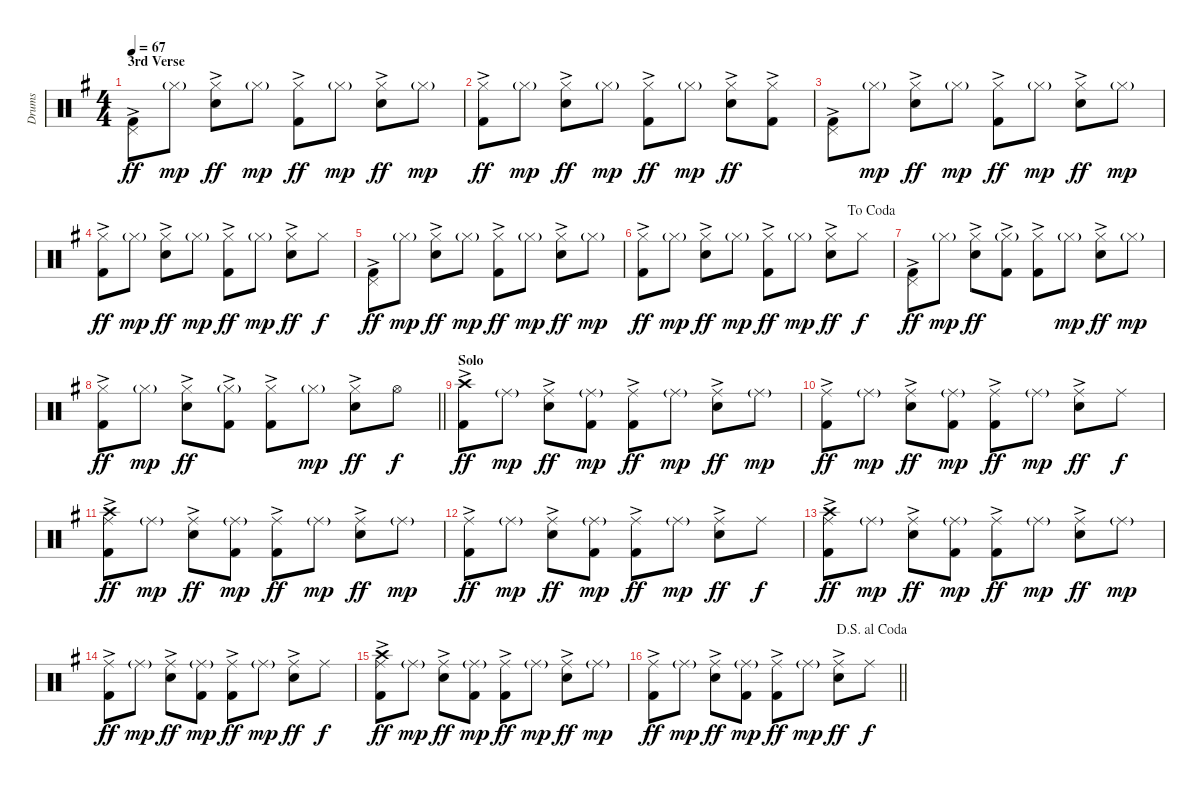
\track ("Drums" "Drums") {instrument percussion}
\staff {score}
\articulation defaults
\ts (4 4)
\section ("" "3rd Verse")
\tempo 67
\clef neutral
\ks g
("Pedal Hi-Hat (hit)" "Kick (hit) 2"{ac}).8{dy ff} "Hi-Hat (closed)"{g}.8{dy mp} ("Hi-Hat (closed)" "Snare (hit) 2"{ac}).8{dy ff} "Hi-Hat (closed)"{g}.8{dy mp} ("Hi-Hat (closed)" "Kick (hit) 2"{ac}).8{dy ff} "Hi-Hat (closed)"{g}.8{dy mp} ("Hi-Hat (closed)" "Snare (hit) 2"{ac}).8{dy ff} "Hi-Hat (closed)"{g}.8{dy mp} |
("Hi-Hat (closed)" "Kick (hit) 2"{ac}).8{dy ff} "Hi-Hat (closed)"{g}.8{dy mp} ("Hi-Hat (closed)" "Snare (hit) 2"{ac}).8{dy ff} "Hi-Hat (closed)"{g}.8{dy mp} ("Hi-Hat (closed)" "Kick (hit) 2"{ac}).8{dy ff} "Hi-Hat (closed)"{g}.8{dy mp} ("Hi-Hat (closed)" "Snare (hit) 2"{ac}).8{dy ff} ("Hi-Hat (closed)" "Kick (hit) 2"{ac}).8 |
("Pedal Hi-Hat (hit)" "Kick (hit) 2"{ac}).8 "Hi-Hat (closed)"{g}.8{dy mp} ("Hi-Hat (closed)" "Snare (hit) 2"{ac}).8{dy ff} "Hi-Hat (closed)"{g}.8{dy mp} ("Hi-Hat (closed)" "Kick (hit) 2"{ac}).8{dy ff} "Hi-Hat (closed)"{g}.8{dy mp} ("Hi-Hat (closed)" "Snare (hit) 2"{ac}).8{dy ff} "Hi-Hat (closed)"{g}.8{dy mp} |
("Hi-Hat (closed)" "Kick (hit) 2"{ac}).8{dy ff} "Hi-Hat (closed)"{g}.8{dy mp} ("Hi-Hat (closed)" "Snare (hit) 2"{ac}).8{dy ff} "Hi-Hat (closed)"{g}.8{dy mp} ("Hi-Hat (closed)" "Kick (hit) 2"{ac}).8{dy ff} "Hi-Hat (closed)"{g}.8{dy mp} ("Hi-Hat (closed)" "Snare (hit) 2"{ac}).8{dy ff} "Hi-Hat (closed)".8{dy f} |
("Pedal Hi-Hat (hit)" "Kick (hit) 2"{ac}).8{dy ff} "Hi-Hat (closed)"{g}.8{dy mp} ("Hi-Hat (closed)" "Snare (hit) 2"{ac}).8{dy ff} "Hi-Hat (closed)"{g}.8{dy mp} ("Hi-Hat (closed)" "Kick (hit) 2"{ac}).8{dy ff} "Hi-Hat (closed)"{g}.8{dy mp} ("Hi-Hat (closed)" "Snare (hit) 2"{ac}).8{dy ff} "Hi-Hat (closed)"{g}.8{dy mp} |
\jump dacoda
("Hi-Hat (closed)" "Kick (hit) 2"{ac}).8{dy ff} "Hi-Hat (closed)"{g}.8{dy mp} ("Hi-Hat (closed)" "Snare (hit) 2"{ac}).8{dy ff} "Hi-Hat (closed)"{g}.8{dy mp} ("Hi-Hat (closed)" "Kick (hit) 2"{ac}).8{dy ff} "Hi-Hat (closed)"{g}.8{dy mp} ("Hi-Hat (closed)" "Snare (hit) 2"{ac}).8{dy ff} "Hi-Hat (closed)".8{dy f} |
("Pedal Hi-Hat (hit)" "Kick (hit) 2"{ac}).8{dy ff} "Hi-Hat (closed)"{g}.8{dy mp} ("Hi-Hat (closed)" "Snare (hit) 2"{ac}).8{dy ff} ("Hi-Hat (closed)"{g} "Kick (hit) 2"{ac}).8 ("Hi-Hat (closed)" "Kick (hit) 2"{ac}).8 "Hi-Hat (closed)"{g}.8{dy mp} ("Hi-Hat (closed)" "Snare (hit) 2"{ac}).8{dy ff} "Hi-Hat (closed)"{g}.8{dy mp} |
\barLineRight lightlight
("Hi-Hat (closed)" "Kick (hit) 2"{ac}).8{dy ff} "Hi-Hat (closed)"{g}.8{dy mp} ("Hi-Hat (closed)" "Snare (hit) 2"{ac}).8{dy ff} ("Hi-Hat (closed)"{g} "Kick (hit) 2"{ac}).8 ("Hi-Hat (closed)" "Kick (hit) 2"{ac}).8 "Hi-Hat (closed)"{g}.8{dy mp} ("Hi-Hat (closed)" "Snare (hit) 2"{ac}).8{dy ff} "Hi-Hat (open)".8{dy f} |
\section ("" "Solo")
("Crash high (hit)" "Kick (hit) 2"{ac}).8{dy ff} "Ride (middle)"{g}.8{dy mp} ("Ride (middle)" "Snare (hit) 2"{ac}).8{dy ff} ("Ride (middle)"{g} "Kick (hit) 2").8{dy mp} ("Ride (middle)" "Kick (hit) 2"{ac}).8{dy ff} "Ride (middle)"{g}.8{dy mp} ("Ride (middle)" "Snare (hit) 2"{ac}).8{dy ff} "Ride (middle)"{g}.8{dy mp} |
("Ride (middle)" "Kick (hit) 2"{ac}).8{dy ff} "Ride (middle)"{g}.8{dy mp} ("Ride (middle)" "Snare (hit) 2"{ac}).8{dy ff} ("Ride (middle)"{g} "Kick (hit) 2").8{dy mp} ("Ride (middle)" "Kick (hit) 2"{ac}).8{dy ff} "Ride (middle)"{g}.8{dy mp} ("Ride (middle)" "Snare (hit) 2"{ac}).8{dy ff} "Ride (middle)".8{dy f} |
("Ride (middle)" "Crash high (hit)" "Kick (hit) 2"{ac}).8{dy ff} "Ride (middle)"{g}.8{dy mp} ("Ride (middle)" "Snare (hit) 2"{ac}).8{dy ff} ("Ride (middle)"{g} "Kick (hit) 2").8{dy mp} ("Ride (middle)" "Kick (hit) 2"{ac}).8{dy ff} "Ride (middle)"{g}.8{dy mp} ("Ride (middle)" "Snare (hit) 2"{ac}).8{dy ff} "Ride (middle)"{g}.8{dy mp} |
("Ride (middle)" "Kick (hit) 2"{ac}).8{dy ff} "Ride (middle)"{g}.8{dy mp} ("Ride (middle)" "Snare (hit) 2"{ac}).8{dy ff} ("Ride (middle)"{g} "Kick (hit) 2").8{dy mp} ("Ride (middle)" "Kick (hit) 2"{ac}).8{dy ff} "Ride (middle)"{g}.8{dy mp} ("Ride (middle)" "Snare (hit) 2"{ac}).8{dy ff} "Ride (middle)".8{dy f} |
("Ride (middle)" "Crash high (hit)" "Kick (hit) 2"{ac}).8{dy ff} "Ride (middle)"{g}.8{dy mp} ("Ride (middle)" "Snare (hit) 2"{ac}).8{dy ff} ("Ride (middle)"{g} "Kick (hit) 2").8{dy mp} ("Ride (middle)" "Kick (hit) 2"{ac}).8{dy ff} "Ride (middle)"{g}.8{dy mp} ("Ride (middle)" "Snare (hit) 2"{ac}).8{dy ff} "Ride (middle)"{g}.8{dy mp} |
("Ride (middle)" "Kick (hit) 2"{ac}).8{dy ff} "Ride (middle)"{g}.8{dy mp} ("Ride (middle)" "Snare (hit) 2"{ac}).8{dy ff} ("Ride (middle)"{g} "Kick (hit) 2").8{dy mp} ("Ride (middle)" "Kick (hit) 2"{ac}).8{dy ff} "Ride (middle)"{g}.8{dy mp} ("Ride (middle)" "Snare (hit) 2"{ac}).8{dy ff} "Ride (middle)".8{dy f} |
("Ride (middle)" "Crash high (hit)" "Kick (hit) 2"{ac}).8{dy ff} "Ride (middle)"{g}.8{dy mp} ("Ride (middle)" "Snare (hit) 2"{ac}).8{dy ff} ("Ride (middle)"{g} "Kick (hit) 2").8{dy mp} ("Ride (middle)" "Kick (hit) 2"{ac}).8{dy ff} "Ride (middle)"{g}.8{dy mp} ("Ride (middle)" "Snare (hit) 2"{ac}).8{dy ff} "Ride (middle)"{g}.8{dy mp} |
\jump dalsegnoalcoda
\barLineRight lightlight
("Ride (middle)" "Kick (hit) 2"{ac}).8{dy ff} "Ride (middle)"{g}.8{dy mp} ("Ride (middle)" "Snare (hit) 2"{ac}).8{dy ff} ("Ride (middle)"{g} "Kick (hit) 2").8{dy mp} ("Ride (middle)" "Kick (hit) 2"{ac}).8{dy ff} "Ride (middle)"{g}.8{dy mp} ("Ride (middle)" "Snare (hit) 2"{ac}).8{dy ff} "Ride (middle)".8{dy f}
